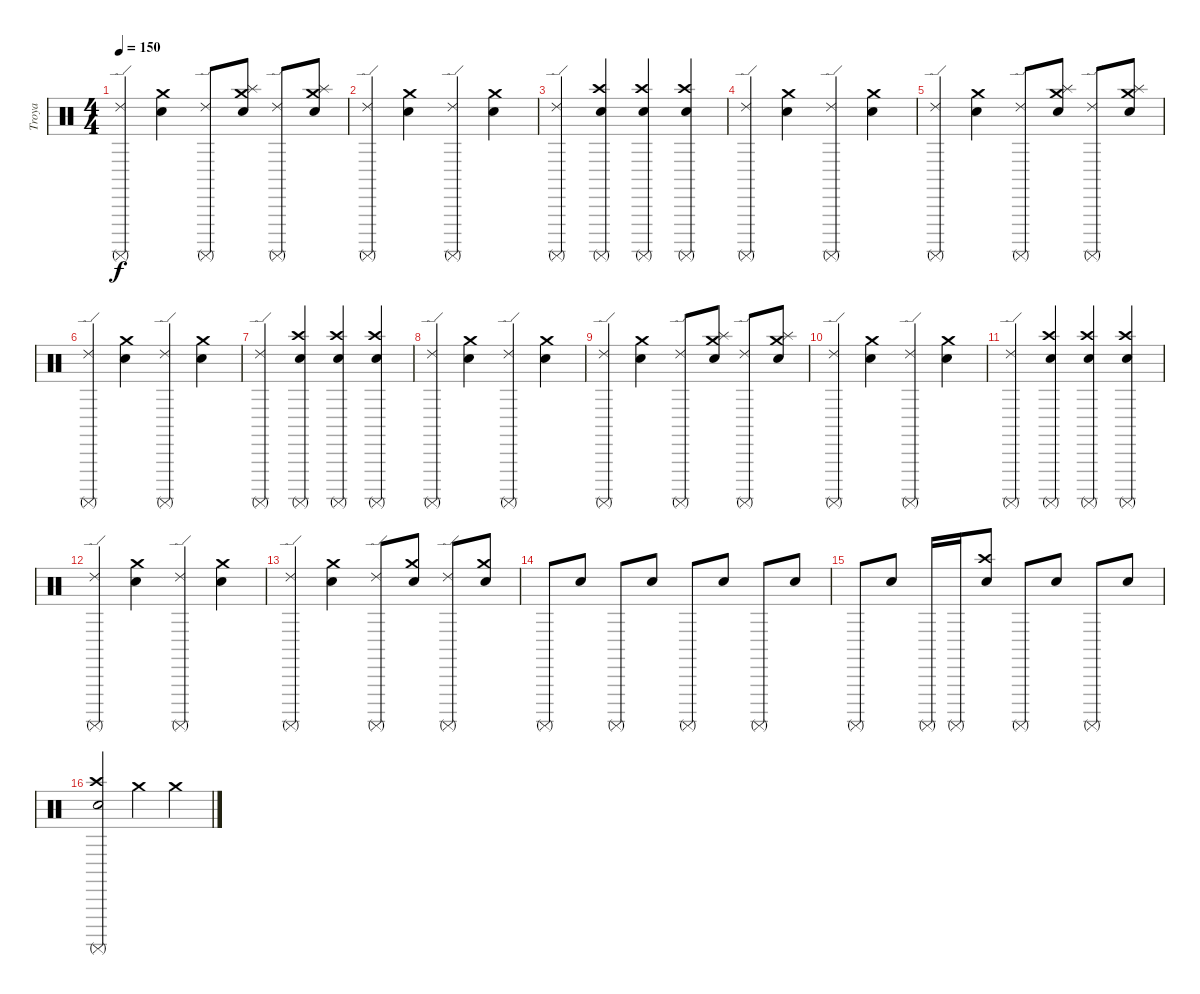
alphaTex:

\track ("Troya" "Troya") {instrument percussion}
\staff {score}
\articulation defaults
\ts (4 4)
\tempo 150
\clef neutral
\ks c
("Ride (edge) 2" "Surdo (mute)").4{dy f} ("Crash medium (hit)" "Electric Snare (hit)").4 ("Ride (edge) 2" "Surdo (mute)").8 ("Splash (hit)" "Crash medium (hit)" "Electric Snare (hit)").8 ("Ride (edge) 2" "Surdo (mute)").8 ("Splash (hit)" "Crash medium (hit)" "Electric Snare (hit)").8 |
("Ride (edge) 2" "Surdo (mute)").4 ("Crash medium (hit)" "Electric Snare (hit)").4 ("Ride (edge) 2" "Surdo (mute)").4 ("Crash medium (hit)" "Electric Snare (hit)").4 |
("Ride (edge) 2" "Surdo (mute)").4 ("Surdo (mute)" "Crash high (hit)" "Electric Snare (hit)").4 ("Surdo (mute)" "Crash high (hit)" "Electric Snare (hit)").4 ("Surdo (mute)" "Crash high (hit)" "Electric Snare (hit)").4 |
("Ride (edge) 2" "Surdo (mute)").4 ("Crash medium (hit)" "Electric Snare (hit)").4 ("Ride (edge) 2" "Surdo (mute)").4 ("Crash medium (hit)" "Electric Snare (hit)").4 |
("Ride (edge) 2" "Surdo (mute)").4 ("Crash medium (hit)" "Electric Snare (hit)").4 ("Ride (edge) 2" "Surdo (mute)").8 ("Splash (hit)" "Crash medium (hit)" "Electric Snare (hit)").8 ("Ride (edge) 2" "Surdo (mute)").8 ("Splash (hit)" "Crash medium (hit)" "Electric Snare (hit)").8 |
("Ride (edge) 2" "Surdo (mute)").4 ("Crash medium (hit)" "Electric Snare (hit)").4 ("Ride (edge) 2" "Surdo (mute)").4 ("Crash medium (hit)" "Electric Snare (hit)").4 |
("Ride (edge) 2" "Surdo (mute)").4 ("Surdo (mute)" "Crash high (hit)" "Electric Snare (hit)").4 ("Surdo (mute)" "Crash high (hit)" "Electric Snare (hit)").4 ("Surdo (mute)" "Crash high (hit)" "Electric Snare (hit)").4 |
("Ride (edge) 2" "Surdo (mute)").4 ("Crash medium (hit)" "Electric Snare (hit)").4 ("Ride (edge) 2" "Surdo (mute)").4 ("Crash medium (hit)" "Electric Snare (hit)").4 |
("Ride (edge) 2" "Surdo (mute)").4 ("Crash medium (hit)" "Electric Snare (hit)").4 ("Ride (edge) 2" "Surdo (mute)").8 ("Splash (hit)" "Crash medium (hit)" "Electric Snare (hit)").8 ("Ride (edge) 2" "Surdo (mute)").8 ("Splash (hit)" "Crash medium (hit)" "Electric Snare (hit)").8 |
("Ride (edge) 2" "Surdo (mute)").4 ("Crash medium (hit)" "Electric Snare (hit)").4 ("Ride (edge) 2" "Surdo (mute)").4 ("Crash medium (hit)" "Electric Snare (hit)").4 |
("Ride (edge) 2" "Surdo (mute)").4 ("Surdo (mute)" "Crash high (hit)" "Electric Snare (hit)").4 ("Surdo (mute)" "Crash high (hit)" "Electric Snare (hit)").4 ("Surdo (mute)" "Crash high (hit)" "Electric Snare (hit)").4 |
("Ride (edge) 2" "Surdo (mute)").4 ("Crash medium (hit)" "Electric Snare (hit)").4 ("Ride (edge) 2" "Surdo (mute)").4 ("Crash medium (hit)" "Electric Snare (hit)").4 |
("Ride (edge) 2" "Surdo (mute)").4 ("Crash medium (hit)" "Electric Snare (hit)").4 ("Ride (edge) 2" "Surdo (mute)").8 ("Crash medium (hit)" "Electric Snare (hit)").8 ("Ride (edge) 2" "Surdo (mute)").8 ("Crash medium (hit)" "Electric Snare (hit)").8 |
"Surdo (mute)".8 "Electric Snare (hit)".8 "Surdo (mute)".8 "Electric Snare (hit)".8 "Surdo (mute)".8 "Electric Snare (hit)".8 "Surdo (mute)".8 "Electric Snare (hit)".8 |
"Surdo (mute)".8 "Electric Snare (hit)".8 "Surdo (mute)".16 "Surdo (mute)".16 ("Crash high (hit)" "Electric Snare (hit)").8 "Surdo (mute)".8 "Electric Snare (hit)".8 "Surdo (mute)".8 "Electric Snare (hit)".8 |
("Crash high (hit)" "Electric Snare (hit)" "Surdo (mute)").2 "Crash medium (hit)".4 "Crash medium (hit)".4
